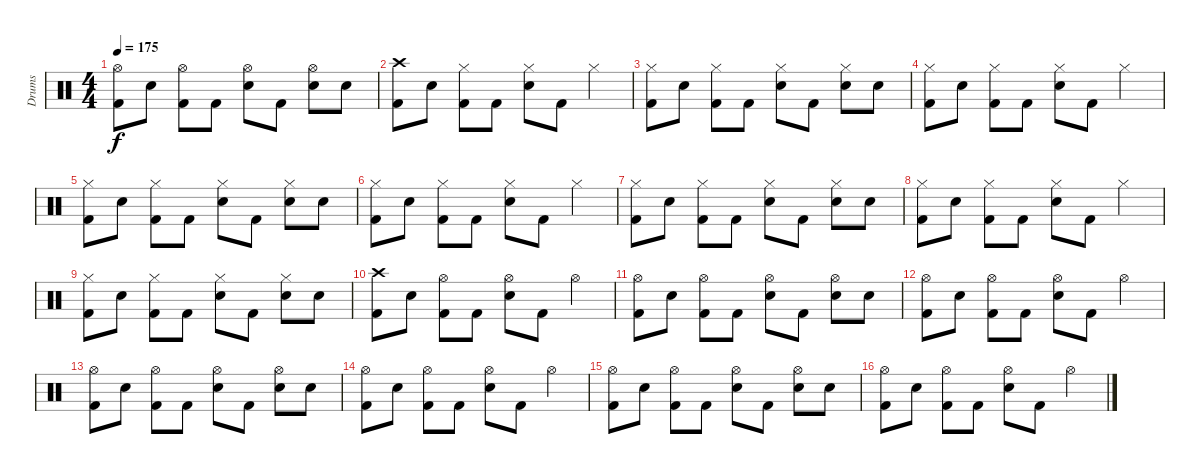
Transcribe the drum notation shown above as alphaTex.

\track ("Drums" "Drums") {instrument percussion}
\staff {score}
\articulation defaults
\ts (4 4)
\tempo 175
\clef neutral
\ks c
("Hi-Hat (open)" "Kick (hit) 2").8{dy f} "Snare (hit) 2".8 ("Hi-Hat (open)" "Kick (hit) 2").8 "Kick (hit) 2".8 ("Hi-Hat (open)" "Snare (hit) 2").8 "Kick (hit) 2".8 ("Hi-Hat (open)" "Snare (hit) 2").8 "Snare (hit) 2".8 |
("Crash high (hit)" "Kick (hit) 2").8 "Snare (hit) 2".8 ("Hi-Hat (closed)" "Kick (hit) 2").8 "Kick (hit) 2".8 ("Hi-Hat (closed)" "Snare (hit) 2").8 "Kick (hit) 2".8 "Hi-Hat (closed)".4 |
("Hi-Hat (closed)" "Kick (hit) 2").8 "Snare (hit) 2".8 ("Hi-Hat (closed)" "Kick (hit) 2").8 "Kick (hit) 2".8 ("Hi-Hat (closed)" "Snare (hit) 2").8 "Kick (hit) 2".8 ("Hi-Hat (closed)" "Snare (hit) 2").8 "Snare (hit) 2".8 |
("Hi-Hat (closed)" "Kick (hit) 2").8 "Snare (hit) 2".8 ("Hi-Hat (closed)" "Kick (hit) 2").8 "Kick (hit) 2".8 ("Hi-Hat (closed)" "Snare (hit) 2").8 "Kick (hit) 2".8 "Hi-Hat (closed)".4 |
("Hi-Hat (closed)" "Kick (hit) 2").8 "Snare (hit) 2".8 ("Hi-Hat (closed)" "Kick (hit) 2").8 "Kick (hit) 2".8 ("Hi-Hat (closed)" "Snare (hit) 2").8 "Kick (hit) 2".8 ("Hi-Hat (closed)" "Snare (hit) 2").8 "Snare (hit) 2".8 |
("Hi-Hat (closed)" "Kick (hit) 2").8 "Snare (hit) 2".8 ("Hi-Hat (closed)" "Kick (hit) 2").8 "Kick (hit) 2".8 ("Hi-Hat (closed)" "Snare (hit) 2").8 "Kick (hit) 2".8 "Hi-Hat (closed)".4 |
("Hi-Hat (closed)" "Kick (hit) 2").8 "Snare (hit) 2".8 ("Hi-Hat (closed)" "Kick (hit) 2").8 "Kick (hit) 2".8 ("Hi-Hat (closed)" "Snare (hit) 2").8 "Kick (hit) 2".8 ("Hi-Hat (closed)" "Snare (hit) 2").8 "Snare (hit) 2".8 |
("Hi-Hat (closed)" "Kick (hit) 2").8 "Snare (hit) 2".8 ("Hi-Hat (closed)" "Kick (hit) 2").8 "Kick (hit) 2".8 ("Hi-Hat (closed)" "Snare (hit) 2").8 "Kick (hit) 2".8 "Hi-Hat (closed)".4 |
("Hi-Hat (closed)" "Kick (hit) 2").8 "Snare (hit) 2".8 ("Hi-Hat (closed)" "Kick (hit) 2").8 "Kick (hit) 2".8 ("Hi-Hat (closed)" "Snare (hit) 2").8 "Kick (hit) 2".8 ("Hi-Hat (closed)" "Snare (hit) 2").8 "Snare (hit) 2".8 |
("Crash high (hit)" "Kick (hit) 2").8 "Snare (hit) 2".8 ("Hi-Hat (open)" "Kick (hit) 2").8 "Kick (hit) 2".8 ("Hi-Hat (open)" "Snare (hit) 2").8 "Kick (hit) 2".8 "Hi-Hat (open)".4 |
("Hi-Hat (open)" "Kick (hit) 2").8 "Snare (hit) 2".8 ("Hi-Hat (open)" "Kick (hit) 2").8 "Kick (hit) 2".8 ("Hi-Hat (open)" "Snare (hit) 2").8 "Kick (hit) 2".8 ("Hi-Hat (open)" "Snare (hit) 2").8 "Snare (hit) 2".8 |
("Hi-Hat (open)" "Kick (hit) 2").8 "Snare (hit) 2".8 ("Hi-Hat (open)" "Kick (hit) 2").8 "Kick (hit) 2".8 ("Hi-Hat (open)" "Snare (hit) 2").8 "Kick (hit) 2".8 "Hi-Hat (open)".4 |
("Hi-Hat (open)" "Kick (hit) 2").8 "Snare (hit) 2".8 ("Hi-Hat (open)" "Kick (hit) 2").8 "Kick (hit) 2".8 ("Hi-Hat (open)" "Snare (hit) 2").8 "Kick (hit) 2".8 ("Hi-Hat (open)" "Snare (hit) 2").8 "Snare (hit) 2".8 |
("Hi-Hat (open)" "Kick (hit) 2").8 "Snare (hit) 2".8 ("Hi-Hat (open)" "Kick (hit) 2").8 "Kick (hit) 2".8 ("Hi-Hat (open)" "Snare (hit) 2").8 "Kick (hit) 2".8 "Hi-Hat (open)".4 |
("Hi-Hat (open)" "Kick (hit) 2").8 "Snare (hit) 2".8 ("Hi-Hat (open)" "Kick (hit) 2").8 "Kick (hit) 2".8 ("Hi-Hat (open)" "Snare (hit) 2").8 "Kick (hit) 2".8 ("Hi-Hat (open)" "Snare (hit) 2").8 "Snare (hit) 2".8 |
("Hi-Hat (open)" "Kick (hit) 2").8 "Snare (hit) 2".8 ("Hi-Hat (open)" "Kick (hit) 2").8 "Kick (hit) 2".8 ("Hi-Hat (open)" "Snare (hit) 2").8 "Kick (hit) 2".8 "Hi-Hat (open)".4
